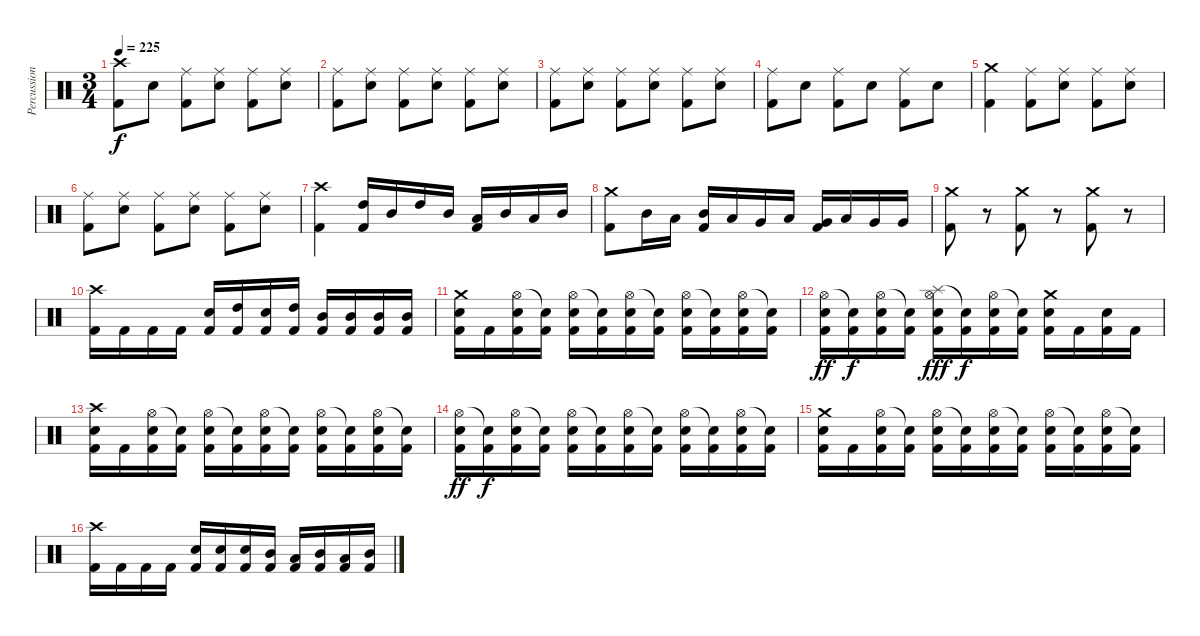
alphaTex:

\track ("Percussion" "Percussion") {instrument percussion}
\staff {score}
\articulation defaults
\ts (3 4)
\tempo 225
\clef neutral
\ks c
("Crash high (hit)" "Kick (hit) 2").8{dy f} "Snare (hit) 2".8 ("Ride (middle)" "Kick (hit) 2").8 ("Ride (middle)" "Snare (hit) 2").8 ("Ride (middle)" "Kick (hit) 2").8 ("Ride (middle)" "Snare (hit) 2").8 |
("Ride (middle)" "Kick (hit) 2").8 ("Ride (middle)" "Snare (hit) 2").8 ("Ride (middle)" "Kick (hit) 2").8 ("Ride (middle)" "Snare (hit) 2").8 ("Ride (middle)" "Kick (hit) 2").8 ("Ride (middle)" "Snare (hit) 2").8 |
("Ride (middle)" "Kick (hit) 2").8 ("Ride (middle)" "Snare (hit) 2").8 ("Ride (middle)" "Kick (hit) 2").8 ("Ride (middle)" "Snare (hit) 2").8 ("Ride (middle)" "Kick (hit) 2").8 ("Ride (middle)" "Snare (hit) 2").8 |
("Ride (middle)" "Kick (hit) 2").8 "Snare (hit) 2".8 ("Ride (middle)" "Kick (hit) 2").8 "Snare (hit) 2".8 ("Ride (middle)" "Kick (hit) 2").8 "Snare (hit) 2".8 |
("Crash medium (hit)" "Kick (hit) 2").4 ("Ride (middle)" "Kick (hit) 2").8 ("Ride (middle)" "Snare (hit) 2").8 ("Ride (middle)" "Kick (hit) 2").8 ("Ride (middle)" "Snare (hit) 2").8 |
("Ride (middle)" "Kick (hit) 2").8 ("Ride (middle)" "Snare (hit) 2").8 ("Ride (middle)" "Kick (hit) 2").8 ("Ride (middle)" "Snare (hit) 2").8 ("Ride (middle)" "Kick (hit) 2").8 ("Ride (middle)" "Snare (hit) 2").8 |
("Crash high (hit)" "Kick (hit) 2").4 ("High Tom (hit)" "Kick (hit) 2").16 "Mid Tom (hit)".16 "High Tom (hit)".16 "Mid Tom (hit)".16 ("Low Tom (hit)" "Kick (hit) 2").16 "Mid Tom (hit)".16 "Low Tom (hit)".16 "Mid Tom (hit)".16 |
("Crash medium (hit)" "Kick (hit) 2").8 "Mid Tom (hit)".16 "Low Tom (hit)".16 ("Mid Tom (hit)" "Kick (hit) 2").16 "Low Tom (hit)".16 "Very Low Tom (hit)".16 "Low Tom (hit)".16 ("Very Low Tom (hit)" "Kick (hit) 2").16 "Low Tom (hit)".16 "Very Low Tom (hit)".16 "Very Low Tom (hit)".16 |
("Crash medium (hit)" "Kick (hit) 2").8 r.8{volume 0} ("Crash medium (hit)" "Kick (hit) 2").8{volume 15} r.8{volume 0} ("Crash medium (hit)" "Kick (hit) 2").8{volume 15} r.8{volume 0} |
("Crash high (hit)" "Kick (hit) 2").16{volume 15} "Kick (hit) 2".16 "Kick (hit) 2".16 "Kick (hit) 2".16 ("Snare (hit) 2" "Kick (hit) 2").16 ("High Tom (hit)" "Kick (hit) 2").16 ("Snare (hit) 2" "Kick (hit) 2").16 ("High Tom (hit)" "Kick (hit) 2").16 ("Mid Tom (hit)" "Kick (hit) 2").16 ("Mid Tom (hit)" "Kick (hit) 2").16 ("Mid Tom (hit)" "Kick (hit) 2").16 ("Mid Tom (hit)" "Kick (hit) 2").16 |
("Crash medium (hit)" "Snare (hit) 2" "Kick (hit) 2").16 "Kick (hit) 2".16 ("Hi-Hat (open)" "Snare (hit) 2" "Kick (hit) 2").16 ("Snare (hit)"{t} "Kick (hit) 2").16 ("Hi-Hat (open)" "Snare (hit) 2" "Kick (hit) 2").16 ("Snare (hit)"{t} "Kick (hit) 2").16 ("Hi-Hat (open)" "Snare (hit) 2" "Kick (hit) 2").16 ("Snare (hit)"{t} "Kick (hit) 2").16 ("Hi-Hat (open)" "Snare (hit) 2" "Kick (hit) 2").16 ("Snare (hit)"{t} "Kick (hit) 2").16 ("Hi-Hat (open)" "Snare (hit) 2" "Kick (hit) 2").16 ("Snare (hit)"{t} "Kick (hit) 2").16 |
("Hi-Hat (open)" "Snare (hit) 2" "Kick (hit) 2").16{dy ff} ("Snare (hit)"{t} "Kick (hit) 2").16{dy f} ("Hi-Hat (open)" "Snare (hit) 2" "Kick (hit) 2").16 ("Snare (hit)"{t} "Kick (hit) 2").16 ("Splash (hit)" "Hi-Hat (open)" "Snare (hit) 2" "Kick (hit) 2").16{dy fff} ("Snare (hit)"{t} "Kick (hit) 2").16{dy f} ("Hi-Hat (open)" "Snare (hit) 2" "Kick (hit) 2").16 ("Snare (hit)"{t} "Kick (hit) 2").16 ("Crash medium (hit)" "Snare (hit) 2" "Kick (hit) 2").16 "Kick (hit) 2".16 ("Snare (hit) 2" "Kick (hit) 2").16 "Kick (hit) 2".16 |
("Crash high (hit)" "Snare (hit) 2" "Kick (hit) 2").16 "Kick (hit) 2".16 ("Hi-Hat (open)" "Snare (hit) 2" "Kick (hit) 2").16 ("Snare (hit)"{t} "Kick (hit) 2").16 ("Hi-Hat (open)" "Snare (hit) 2" "Kick (hit) 2").16 ("Snare (hit)"{t} "Kick (hit) 2").16 ("Hi-Hat (open)" "Snare (hit) 2" "Kick (hit) 2").16 ("Snare (hit)"{t} "Kick (hit) 2").16 ("Hi-Hat (open)" "Snare (hit) 2" "Kick (hit) 2").16 ("Snare (hit)"{t} "Kick (hit) 2").16 ("Hi-Hat (open)" "Snare (hit) 2" "Kick (hit) 2").16 ("Snare (hit)"{t} "Kick (hit) 2").16 |
("Hi-Hat (open)" "Snare (hit) 2" "Kick (hit) 2").16{dy ff} ("Snare (hit)"{t} "Kick (hit) 2").16{dy f} ("Hi-Hat (open)" "Snare (hit) 2" "Kick (hit) 2").16 ("Snare (hit)"{t} "Kick (hit) 2").16 ("Hi-Hat (open)" "Snare (hit) 2" "Kick (hit) 2").16 ("Snare (hit)"{t} "Kick (hit) 2").16 ("Hi-Hat (open)" "Snare (hit) 2" "Kick (hit) 2").16 ("Snare (hit)"{t} "Kick (hit) 2").16 ("Hi-Hat (open)" "Snare (hit) 2" "Kick (hit) 2").16 ("Snare (hit)"{t} "Kick (hit) 2").16 ("Hi-Hat (open)" "Snare (hit) 2" "Kick (hit) 2").16 ("Snare (hit)"{t} "Kick (hit) 2").16 |
("Crash medium (hit)" "Snare (hit) 2" "Kick (hit) 2").16 "Kick (hit) 2".16 ("Hi-Hat (open)" "Snare (hit) 2" "Kick (hit) 2").16 ("Snare (hit)"{t} "Kick (hit) 2").16 ("Hi-Hat (open)" "Snare (hit) 2" "Kick (hit) 2").16 ("Snare (hit)"{t} "Kick (hit) 2").16 ("Hi-Hat (open)" "Snare (hit) 2" "Kick (hit) 2").16 ("Snare (hit)"{t} "Kick (hit) 2").16 ("Hi-Hat (open)" "Snare (hit) 2" "Kick (hit) 2").16 ("Snare (hit)"{t} "Kick (hit) 2").16 ("Hi-Hat (open)" "Snare (hit) 2" "Kick (hit) 2").16 ("Snare (hit)"{t} "Kick (hit) 2").16 |
("Crash high (hit)" "Kick (hit) 2").16 "Kick (hit) 2".16 "Kick (hit) 2".16 "Kick (hit) 2".16 ("Snare (hit) 2" "Kick (hit) 2").16 ("Snare (hit) 2" "Kick (hit) 2").16 ("Snare (hit) 2" "Kick (hit) 2").16 ("Mid Tom (hit)" "Kick (hit) 2").16 ("Low Tom (hit)" "Kick (hit) 2").16 ("Mid Tom (hit)" "Kick (hit) 2").16 ("Low Tom (hit)" "Kick (hit) 2").16 ("Mid Tom (hit)" "Kick (hit) 2").16
